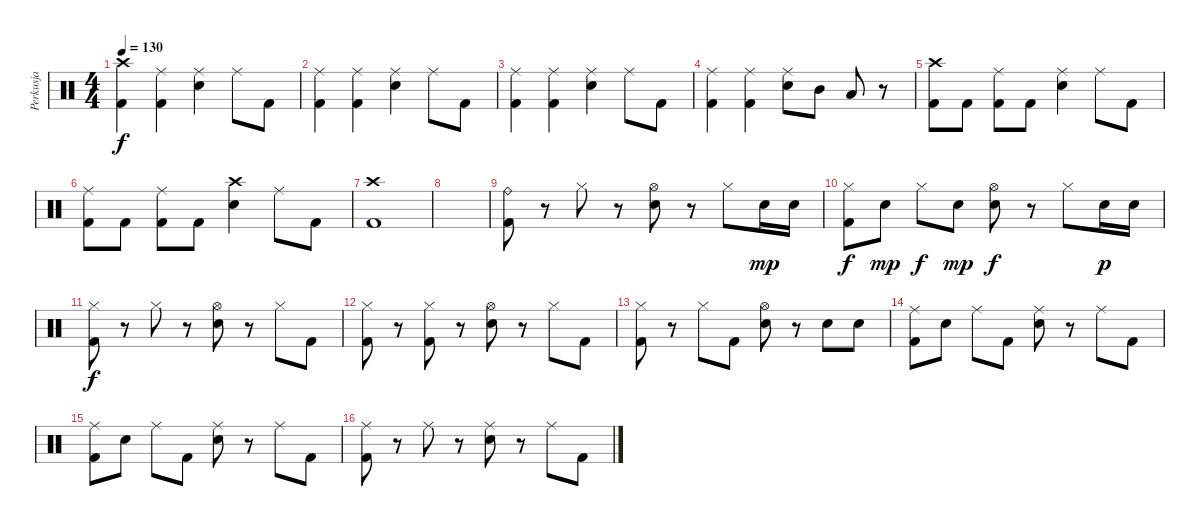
\track ("Perkusja" "Perkusja") {instrument percussion}
\staff {score}
\articulation defaults
\ts (4 4)
\tempo 130
\clef neutral
\ks c
("Crash high (hit)" "Kick (hit) 2").4{dy f} ("Ride (middle)" "Kick (hit) 2").4 ("Ride (middle)" "Snare (hit) 2").4 "Ride (middle)".8 "Kick (hit) 2".8 |
("Ride (middle)" "Kick (hit) 2").4 ("Ride (middle)" "Kick (hit) 2").4 ("Ride (middle)" "Snare (hit) 2").4 "Ride (middle)".8 "Kick (hit) 2".8 |
("Ride (middle)" "Kick (hit) 2").4 ("Ride (middle)" "Kick (hit) 2").4 ("Ride (middle)" "Snare (hit) 2").4 "Ride (middle)".8 "Kick (hit) 2".8 |
("Ride (middle)" "Kick (hit) 2").4 ("Ride (middle)" "Kick (hit) 2").4 ("Ride (middle)" "Snare (hit) 2").8 "Mid Tom (hit)".8 "Low Tom (hit)".8 r.8 |
("Crash high (hit)" "Kick (hit) 2").8 "Kick (hit) 2".8 ("Ride (middle)" "Kick (hit) 2").8 "Kick (hit) 2".8 ("Ride (middle)" "Snare (hit) 2").4 "Ride (middle)".8 "Kick (hit) 2".8 |
("Ride (middle)" "Kick (hit) 2").8 "Kick (hit) 2".8 ("Ride (middle)" "Kick (hit) 2").8 "Kick (hit) 2".8 ("Crash high (hit)" "Snare (hit) 2").4 "Ride (middle)".8 "Kick (hit) 2".8 |
("Crash high (hit)" "Kick (hit) 2").1 |
|
("Ride (bell)" "Kick (hit) 2").8{volume 14} r.8 "Hi-Hat (closed)".8 r.8 ("Hi-Hat (open)" "Snare (hit) 2").8 r.8 "Hi-Hat (closed)".8 "Snare (hit) 2".16{dy mp} "Snare (hit) 2".16 |
("Hi-Hat (closed)" "Kick (hit) 2").8{dy f} "Snare (hit) 2".8{dy mp} "Hi-Hat (closed)".8{dy f} "Snare (hit) 2".8{dy mp} ("Hi-Hat (open)" "Snare (hit) 2").8{dy f} r.8 "Hi-Hat (closed)".8 "Snare (hit) 2".16{dy p} "Snare (hit) 2".16 |
("Hi-Hat (closed)" "Kick (hit) 2").8{dy f} r.8 "Hi-Hat (closed)".8 r.8 ("Hi-Hat (open)" "Snare (hit) 2").8 r.8 "Hi-Hat (closed)".8 "Kick (hit) 2".8 |
("Hi-Hat (closed)" "Kick (hit) 2").8 r.8 ("Hi-Hat (closed)" "Kick (hit) 2").8 r.8 ("Hi-Hat (open)" "Snare (hit) 2").8 r.8 "Hi-Hat (closed)".8 "Kick (hit) 2".8 |
("Hi-Hat (closed)" "Kick (hit) 2").8 r.8 "Hi-Hat (closed)".8 "Kick (hit) 2".8 ("Hi-Hat (open)" "Snare (hit) 2").8 r.8 "Snare (hit) 2".8 "Snare (hit) 2".8 |
("Ride (middle)" "Kick (hit) 2").8 "Snare (hit) 2".8 "Ride (middle)".8 "Kick (hit) 2".8 ("Ride (middle)" "Snare (hit) 2").8 r.8 "Ride (middle)".8 "Kick (hit) 2".8 |
("Ride (middle)" "Kick (hit) 2").8 "Snare (hit) 2".8 "Ride (middle)".8 "Kick (hit) 2".8 ("Ride (middle)" "Snare (hit) 2").8 r.8 "Ride (middle)".8 "Kick (hit) 2".8 |
("Ride (middle)" "Kick (hit) 2").8 r.8 "Ride (middle)".8 r.8 ("Ride (middle)" "Snare (hit) 2").8 r.8 "Ride (middle)".8 "Kick (hit) 2".8
